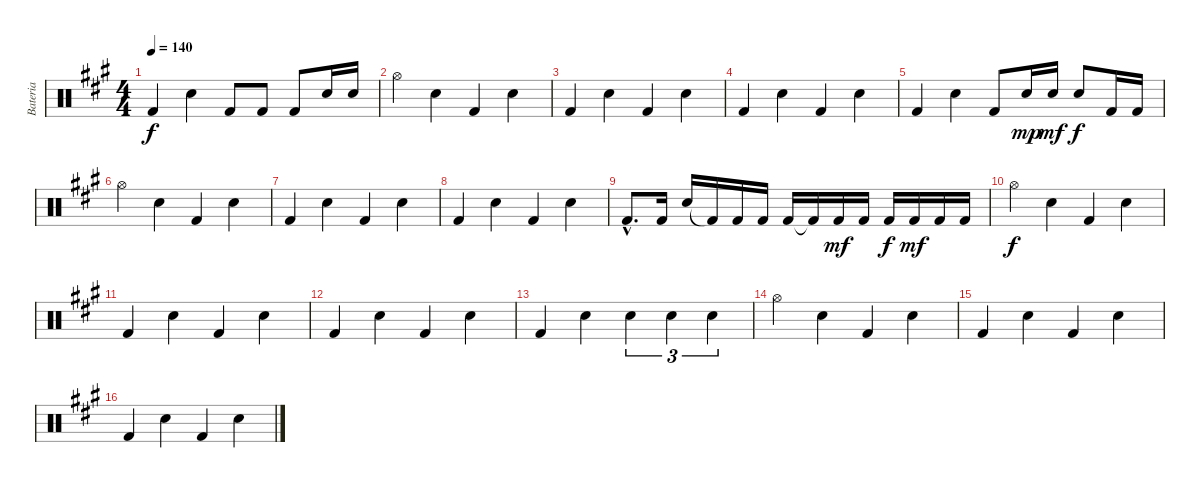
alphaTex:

\track ("Bateria" "Bateria") {instrument percussion}
\staff {score}
\articulation defaults
\ts (4 4)
\tempo 140
\clef neutral
\ks a "Kick (hit) 2".4{dy f} "Electric Snare (hit)".4 "Kick (hit) 2".8 "Kick (hit) 2".8 "Kick (hit) 2".8 "Electric Snare (hit)".16 "Electric Snare (hit)".16
|
"Hi-Hat (open)".4 "Electric Snare (hit)".4 "Kick (hit) 2".4 "Electric Snare (hit)".4 |
"Kick (hit) 2".4 "Electric Snare (hit)".4 "Kick (hit) 2".4 "Electric Snare (hit)".4 |
"Kick (hit) 2".4 "Electric Snare (hit)".4 "Kick (hit) 2".4 "Electric Snare (hit)".4 |
"Kick (hit) 2".4 "Electric Snare (hit)".4 "Kick (hit) 2".8 "Electric Snare (hit)".16{dy mp} "Electric Snare (hit)".16{dy mf} "Electric Snare (hit)".8{dy f} "Kick (hit) 2".16 "Kick (hit) 2".16 |
"Hi-Hat (open)".4 "Electric Snare (hit)".4 "Kick (hit) 2".4 "Electric Snare (hit)".4 |
"Kick (hit) 2".4 "Electric Snare (hit)".4 "Kick (hit) 2".4 "Electric Snare (hit)".4 |
"Kick (hit) 2".4 "Electric Snare (hit)".4 "Kick (hit) 2".4 "Electric Snare (hit)".4 |
"Kick (hit) 2"{hac}.8{d} "Kick (hit) 2".16 "Electric Snare (hit)".16 "Kick (hit) 2"{t}.16 "Kick (hit) 2".16 "Kick (hit) 2".16 "Kick (hit) 2".16 "Kick (hit) 2"{t}.16 "Kick (hit) 2".16{dy mf} "Kick (hit) 2".16 "Kick (hit) 2".16{dy f} "Kick (hit) 2".16{dy mf} "Kick (hit) 2".16 "Kick (hit) 2".16 |
"Hi-Hat (open)".4{dy f} "Electric Snare (hit)".4 "Kick (hit) 2".4 "Electric Snare (hit)".4 |
"Kick (hit) 2".4 "Electric Snare (hit)".4 "Kick (hit) 2".4 "Electric Snare (hit)".4 |
"Kick (hit) 2".4 "Electric Snare (hit)".4 "Kick (hit) 2".4 "Electric Snare (hit)".4 |
"Kick (hit) 2".4 "Electric Snare (hit)".4 "Electric Snare (hit)".4{tu (3 2)} "Electric Snare (hit)".4{tu (3 2)} "Electric Snare (hit)".4{tu (3 2)} |
"Hi-Hat (open)".4 "Electric Snare (hit)".4 "Kick (hit) 2".4 "Electric Snare (hit)".4 |
"Kick (hit) 2".4 "Electric Snare (hit)".4 "Kick (hit) 2".4 "Electric Snare (hit)".4 |
"Kick (hit) 2".4 "Electric Snare (hit)".4 "Kick (hit) 2".4 "Electric Snare (hit)".4
